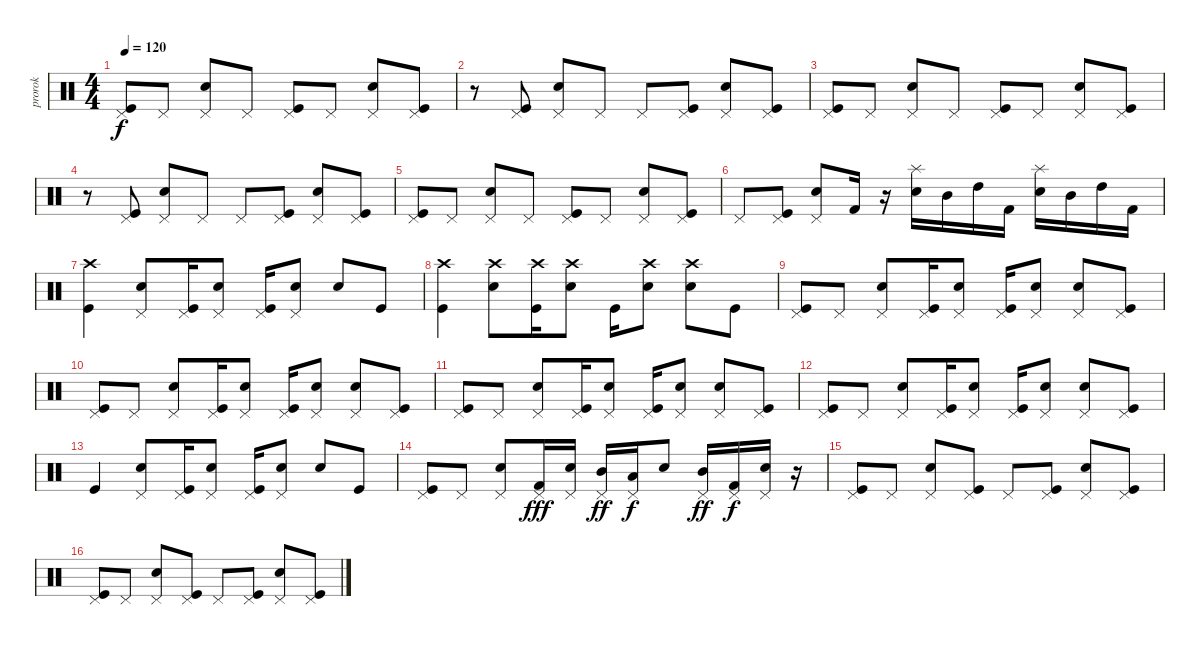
\track ("prorok" "prorok") {instrument percussion}
\staff {score}
\articulation defaults
\ts (4 4)
\tempo 120
\clef neutral
\ks c
("Kick (hit)" "Pedal Hi-Hat (hit)").8{dy f} "Pedal Hi-Hat (hit)".8 ("Electric Snare (hit)" "Pedal Hi-Hat (hit)").8 "Pedal Hi-Hat (hit)".8 ("Kick (hit)" "Pedal Hi-Hat (hit)").8 "Pedal Hi-Hat (hit)".8 ("Electric Snare (hit)" "Pedal Hi-Hat (hit)").8 ("Kick (hit)" "Pedal Hi-Hat (hit)").8 |
r.8 ("Kick (hit)" "Pedal Hi-Hat (hit)").8 ("Electric Snare (hit)" "Pedal Hi-Hat (hit)").8 "Pedal Hi-Hat (hit)".8 "Pedal Hi-Hat (hit)".8 ("Pedal Hi-Hat (hit)" "Kick (hit)").8 ("Electric Snare (hit)" "Pedal Hi-Hat (hit)").8 ("Kick (hit)" "Pedal Hi-Hat (hit)").8 |
("Kick (hit)" "Pedal Hi-Hat (hit)").8 "Pedal Hi-Hat (hit)".8 ("Electric Snare (hit)" "Pedal Hi-Hat (hit)").8 "Pedal Hi-Hat (hit)".8 ("Kick (hit)" "Pedal Hi-Hat (hit)").8 "Pedal Hi-Hat (hit)".8 ("Electric Snare (hit)" "Pedal Hi-Hat (hit)").8 ("Kick (hit)" "Pedal Hi-Hat (hit)").8 |
r.8 ("Kick (hit)" "Pedal Hi-Hat (hit)").8 ("Electric Snare (hit)" "Pedal Hi-Hat (hit)").8 "Pedal Hi-Hat (hit)".8 "Pedal Hi-Hat (hit)".8 ("Kick (hit)" "Pedal Hi-Hat (hit)").8 ("Electric Snare (hit)" "Pedal Hi-Hat (hit)").8 ("Kick (hit)" "Pedal Hi-Hat (hit)").8 |
("Kick (hit)" "Pedal Hi-Hat (hit)").8 "Pedal Hi-Hat (hit)".8 ("Electric Snare (hit)" "Pedal Hi-Hat (hit)").8 "Pedal Hi-Hat (hit)".8 ("Kick (hit)" "Pedal Hi-Hat (hit)").8 "Pedal Hi-Hat (hit)".8 ("Electric Snare (hit)" "Pedal Hi-Hat (hit)").8 ("Kick (hit)" "Pedal Hi-Hat (hit)").8 |
"Pedal Hi-Hat (hit)".8 ("Kick (hit)" "Pedal Hi-Hat (hit)").8 ("Electric Snare (hit)" "Pedal Hi-Hat (hit)").8 "Kick (hit) 2".16 r.16 ("Electric Snare (hit)" "Splash (hit)").16 "Mid Tom (hit)".16 "High Tom (hit)".16 "Kick (hit) 2".16 ("Electric Snare (hit)" "Splash (hit)").16 "Mid Tom (hit)".16 "High Tom (hit)".16 "Kick (hit) 2".16 |
("Kick (hit)" "Crash high (hit)").4 ("Electric Snare (hit)" "Pedal Hi-Hat (hit)").8 ("Kick (hit)" "Pedal Hi-Hat (hit)").16 ("Electric Snare (hit)" "Pedal Hi-Hat (hit)").8 ("Kick (hit)" "Pedal Hi-Hat (hit)").16 ("Electric Snare (hit)" "Pedal Hi-Hat (hit)").8 "Electric Snare (hit)".8 "Kick (hit)".8 |
("Kick (hit)" "Crash high (hit)").4 ("Electric Snare (hit)" "Crash high (hit)").8 ("Kick (hit)" "Crash high (hit)").16 ("Electric Snare (hit)" "Crash high (hit)").8 "Kick (hit)".16 ("Electric Snare (hit)" "Crash high (hit)").8 ("Electric Snare (hit)" "Crash high (hit)").8 "Kick (hit)".8 |
("Kick (hit)" "Pedal Hi-Hat (hit)").8 "Pedal Hi-Hat (hit)".8 ("Electric Snare (hit)" "Pedal Hi-Hat (hit)").8 ("Kick (hit)" "Pedal Hi-Hat (hit)").16 ("Electric Snare (hit)" "Pedal Hi-Hat (hit)").8 ("Kick (hit)" "Pedal Hi-Hat (hit)").16 ("Electric Snare (hit)" "Pedal Hi-Hat (hit)").8 ("Electric Snare (hit)" "Pedal Hi-Hat (hit)").8 ("Kick (hit)" "Pedal Hi-Hat (hit)").8 |
("Kick (hit)" "Pedal Hi-Hat (hit)").8 "Pedal Hi-Hat (hit)".8 ("Electric Snare (hit)" "Pedal Hi-Hat (hit)").8 ("Kick (hit)" "Pedal Hi-Hat (hit)").16 ("Electric Snare (hit)" "Pedal Hi-Hat (hit)").8 ("Kick (hit)" "Pedal Hi-Hat (hit)").16 ("Electric Snare (hit)" "Pedal Hi-Hat (hit)").8 ("Electric Snare (hit)" "Pedal Hi-Hat (hit)").8 ("Kick (hit)" "Pedal Hi-Hat (hit)").8 |
("Kick (hit)" "Pedal Hi-Hat (hit)").8 "Pedal Hi-Hat (hit)".8 ("Electric Snare (hit)" "Pedal Hi-Hat (hit)").8 ("Kick (hit)" "Pedal Hi-Hat (hit)").16 ("Electric Snare (hit)" "Pedal Hi-Hat (hit)").8 ("Kick (hit)" "Pedal Hi-Hat (hit)").16 ("Electric Snare (hit)" "Pedal Hi-Hat (hit)").8 ("Electric Snare (hit)" "Pedal Hi-Hat (hit)").8 ("Kick (hit)" "Pedal Hi-Hat (hit)").8 |
("Kick (hit)" "Pedal Hi-Hat (hit)").8 "Pedal Hi-Hat (hit)".8 ("Electric Snare (hit)" "Pedal Hi-Hat (hit)").8 ("Kick (hit)" "Pedal Hi-Hat (hit)").16 ("Electric Snare (hit)" "Pedal Hi-Hat (hit)").8 ("Kick (hit)" "Pedal Hi-Hat (hit)").16 ("Electric Snare (hit)" "Pedal Hi-Hat (hit)").8 ("Electric Snare (hit)" "Pedal Hi-Hat (hit)").8 ("Kick (hit)" "Pedal Hi-Hat (hit)").8 |
"Kick (hit)".4 ("Electric Snare (hit)" "Pedal Hi-Hat (hit)").8 ("Kick (hit)" "Pedal Hi-Hat (hit)").16 ("Electric Snare (hit)" "Pedal Hi-Hat (hit)").8 ("Kick (hit)" "Pedal Hi-Hat (hit)").16 ("Electric Snare (hit)" "Pedal Hi-Hat (hit)").8 "Electric Snare (hit)".8 "Kick (hit)".8 |
("Kick (hit)" "Pedal Hi-Hat (hit)").8 "Pedal Hi-Hat (hit)".8 ("Electric Snare (hit)" "Pedal Hi-Hat (hit)").8 ("Kick (hit) 2" "Pedal Hi-Hat (hit)").16{dy fff} ("Electric Snare (hit)" "Pedal Hi-Hat (hit)").16 ("Mid Tom (hit)" "Pedal Hi-Hat (hit)").16{dy ff} ("Low Tom (hit)" "Pedal Hi-Hat (hit)").16{dy f} "Electric Snare (hit)".8 ("Mid Tom (hit)" "Pedal Hi-Hat (hit)").16{dy ff} ("Kick (hit) 2" "Pedal Hi-Hat (hit)").16{dy f} ("Electric Snare (hit)" "Pedal Hi-Hat (hit)").16 r.16 |
("Kick (hit)" "Pedal Hi-Hat (hit)").8 "Pedal Hi-Hat (hit)".8 ("Electric Snare (hit)" "Pedal Hi-Hat (hit)").8 ("Kick (hit)" "Pedal Hi-Hat (hit)").8 "Pedal Hi-Hat (hit)".8 ("Kick (hit)" "Pedal Hi-Hat (hit)").8 ("Electric Snare (hit)" "Pedal Hi-Hat (hit)").8 ("Kick (hit)" "Pedal Hi-Hat (hit)").8 |
("Kick (hit)" "Pedal Hi-Hat (hit)").8 "Pedal Hi-Hat (hit)".8 ("Electric Snare (hit)" "Pedal Hi-Hat (hit)").8 ("Kick (hit)" "Pedal Hi-Hat (hit)").8 "Pedal Hi-Hat (hit)".8 ("Kick (hit)" "Pedal Hi-Hat (hit)").8 ("Electric Snare (hit)" "Pedal Hi-Hat (hit)").8 ("Kick (hit)" "Pedal Hi-Hat (hit)").8
